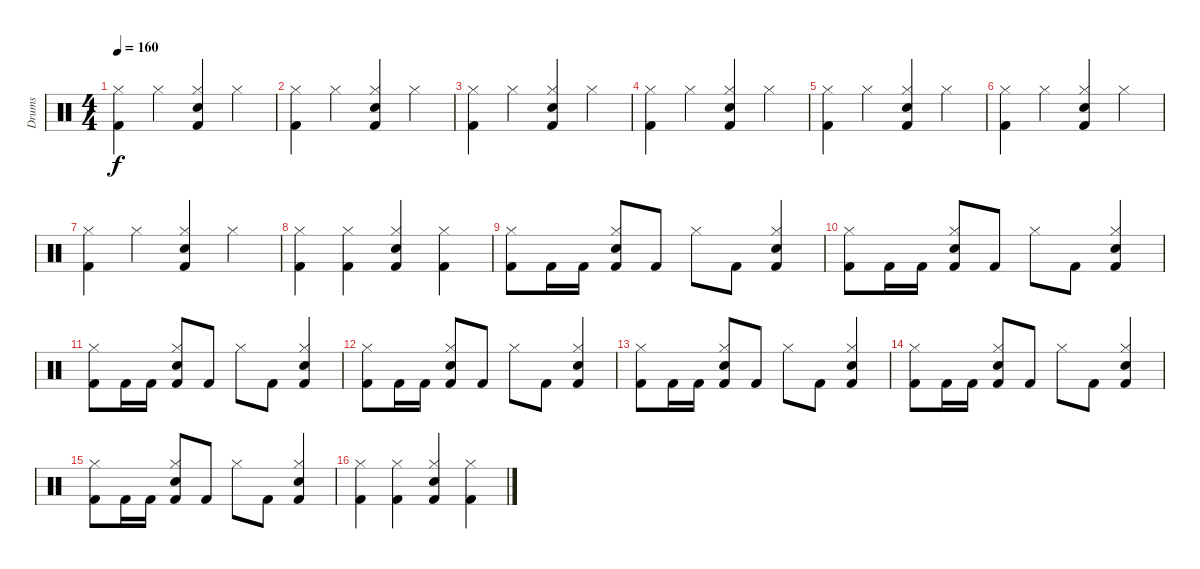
\track ("Drums" "Drums") {instrument percussion}
\staff {score}
\articulation defaults
\ts (4 4)
\tempo 160
\clef neutral
\ks c
("Kick (hit) 2" "Hi-Hat (closed)").4{dy f} "Hi-Hat (closed)".4 ("Kick (hit) 2" "Snare (hit) 2" "Hi-Hat (closed)").4 "Hi-Hat (closed)".4 |
("Kick (hit) 2" "Hi-Hat (closed)").4 "Hi-Hat (closed)".4 ("Kick (hit) 2" "Snare (hit) 2" "Hi-Hat (closed)").4 "Hi-Hat (closed)".4 |
("Kick (hit) 2" "Hi-Hat (closed)").4 "Hi-Hat (closed)".4 ("Kick (hit) 2" "Snare (hit) 2" "Hi-Hat (closed)").4 "Hi-Hat (closed)".4 |
("Kick (hit) 2" "Hi-Hat (closed)").4 "Hi-Hat (closed)".4 ("Kick (hit) 2" "Snare (hit) 2" "Hi-Hat (closed)").4 "Hi-Hat (closed)".4 |
("Kick (hit) 2" "Hi-Hat (closed)").4 "Hi-Hat (closed)".4 ("Kick (hit) 2" "Snare (hit) 2" "Hi-Hat (closed)").4 "Hi-Hat (closed)".4 |
("Kick (hit) 2" "Hi-Hat (closed)").4 "Hi-Hat (closed)".4 ("Kick (hit) 2" "Snare (hit) 2" "Hi-Hat (closed)").4 "Hi-Hat (closed)".4 |
("Kick (hit) 2" "Hi-Hat (closed)").4 "Hi-Hat (closed)".4 ("Kick (hit) 2" "Snare (hit) 2" "Hi-Hat (closed)").4 "Hi-Hat (closed)".4 |
("Kick (hit) 2" "Hi-Hat (closed)").4 ("Kick (hit) 2" "Hi-Hat (closed)").4 ("Kick (hit) 2" "Snare (hit) 2" "Hi-Hat (closed)").4 ("Kick (hit) 2" "Hi-Hat (closed)").4 |
("Kick (hit) 2" "Hi-Hat (closed)").8 "Kick (hit) 2".16 "Kick (hit) 2".16 ("Kick (hit) 2" "Snare (hit) 2" "Hi-Hat (closed)").8 "Kick (hit) 2".8 "Hi-Hat (closed)".8 "Kick (hit) 2".8 ("Kick (hit) 2" "Snare (hit) 2" "Hi-Hat (closed)").4 |
("Kick (hit) 2" "Hi-Hat (closed)").8 "Kick (hit) 2".16 "Kick (hit) 2".16 ("Kick (hit) 2" "Snare (hit) 2" "Hi-Hat (closed)").8 "Kick (hit) 2".8 "Hi-Hat (closed)".8 "Kick (hit) 2".8 ("Kick (hit) 2" "Snare (hit) 2" "Hi-Hat (closed)").4 |
("Kick (hit) 2" "Hi-Hat (closed)").8 "Kick (hit) 2".16 "Kick (hit) 2".16 ("Kick (hit) 2" "Snare (hit) 2" "Hi-Hat (closed)").8 "Kick (hit) 2".8 "Hi-Hat (closed)".8 "Kick (hit) 2".8 ("Kick (hit) 2" "Snare (hit) 2" "Hi-Hat (closed)").4 |
("Kick (hit) 2" "Hi-Hat (closed)").8 "Kick (hit) 2".16 "Kick (hit) 2".16 ("Kick (hit) 2" "Snare (hit) 2" "Hi-Hat (closed)").8 "Kick (hit) 2".8 "Hi-Hat (closed)".8 "Kick (hit) 2".8 ("Kick (hit) 2" "Snare (hit) 2" "Hi-Hat (closed)").4 |
("Kick (hit) 2" "Hi-Hat (closed)").8 "Kick (hit) 2".16 "Kick (hit) 2".16 ("Kick (hit) 2" "Snare (hit) 2" "Hi-Hat (closed)").8 "Kick (hit) 2".8 "Hi-Hat (closed)".8 "Kick (hit) 2".8 ("Kick (hit) 2" "Snare (hit) 2" "Hi-Hat (closed)").4 |
("Kick (hit) 2" "Hi-Hat (closed)").8 "Kick (hit) 2".16 "Kick (hit) 2".16 ("Kick (hit) 2" "Snare (hit) 2" "Hi-Hat (closed)").8 "Kick (hit) 2".8 "Hi-Hat (closed)".8 "Kick (hit) 2".8 ("Kick (hit) 2" "Snare (hit) 2" "Hi-Hat (closed)").4 |
("Kick (hit) 2" "Hi-Hat (closed)").8 "Kick (hit) 2".16 "Kick (hit) 2".16 ("Kick (hit) 2" "Snare (hit) 2" "Hi-Hat (closed)").8 "Kick (hit) 2".8 "Hi-Hat (closed)".8 "Kick (hit) 2".8 ("Kick (hit) 2" "Snare (hit) 2" "Hi-Hat (closed)").4 |
("Kick (hit) 2" "Hi-Hat (closed)").4 ("Kick (hit) 2" "Hi-Hat (closed)").4 ("Kick (hit) 2" "Snare (hit) 2" "Hi-Hat (closed)").4 ("Kick (hit) 2" "Hi-Hat (closed)").4
